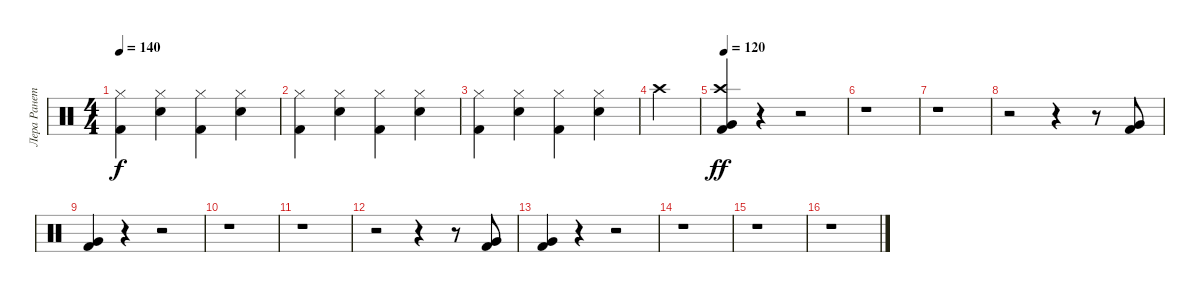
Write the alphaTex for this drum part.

\track ("Лера Ранетка" "Лера Ранет") {instrument percussion}
\staff {score}
\articulation defaults
\ts (4 4)
\tempo 140
\clef neutral
\ks c
("Hi-Hat (closed)" "Kick (hit) 2").4{dy f} ("Hi-Hat (closed)" "Snare (hit) 2").4 ("Hi-Hat (closed)" "Kick (hit) 2").4 ("Hi-Hat (closed)" "Snare (hit) 2").4 |
("Hi-Hat (closed)" "Kick (hit) 2").4 ("Hi-Hat (closed)" "Snare (hit) 2").4 ("Hi-Hat (closed)" "Kick (hit) 2").4 ("Hi-Hat (closed)" "Snare (hit) 2").4 |
("Hi-Hat (closed)" "Kick (hit) 2").4 ("Hi-Hat (closed)" "Snare (hit) 2").4 ("Hi-Hat (closed)" "Kick (hit) 2").4 ("Hi-Hat (closed)" "Snare (hit) 2").4 |
"Crash high (hit)".4 |
\tempo 120
("Crash high (hit)" "Very Low Tom (hit)" "Kick (hit) 2").4{dy ff} r.4 r.2 |
r.1 |
r.1 |
r.2 r.4 r.8 ("Very Low Tom (hit)" "Kick (hit) 2").8 |
("Very Low Tom (hit)" "Kick (hit) 2").4 r.4 r.2 |
r.1 |
r.1 |
r.2 r.4 r.8 ("Very Low Tom (hit)" "Kick (hit) 2").8 |
("Very Low Tom (hit)" "Kick (hit) 2").4 r.4 r.2 |
r.1 |
r.1 |
r.1
